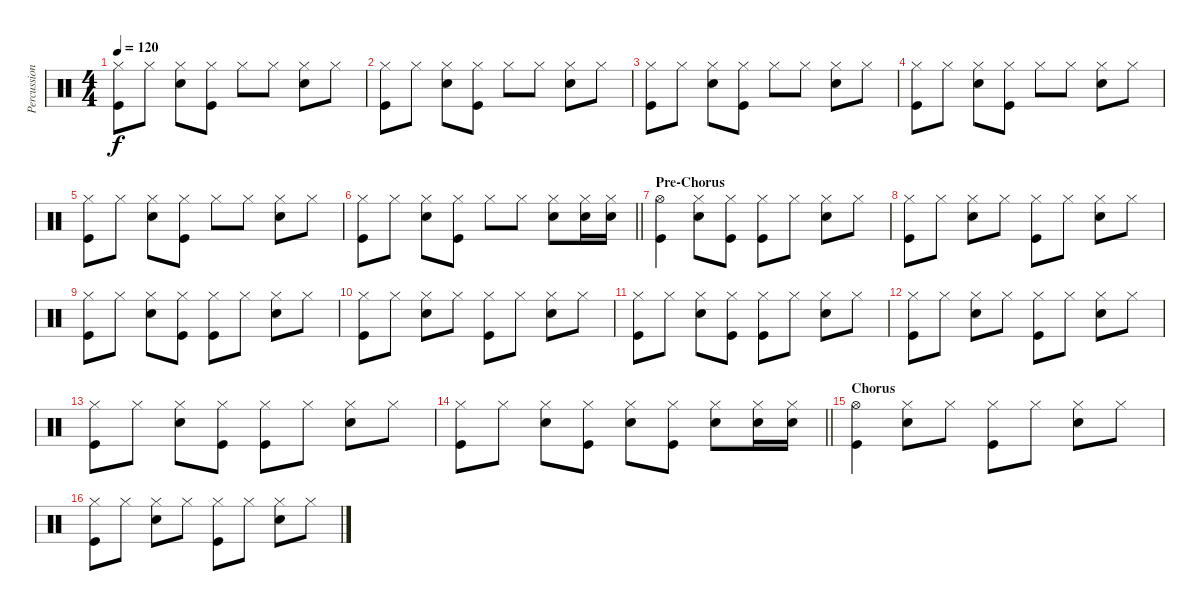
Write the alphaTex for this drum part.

\track ("Percussion" "Percussion") {instrument percussion}
\staff {score}
\articulation defaults
\ts (4 4)
\tempo 120
\clef neutral
\ks c
("Hi-Hat (closed)" "Kick (hit)").8{dy f} "Hi-Hat (closed)".8 ("Hi-Hat (closed)" "Snare (hit) 2").8 ("Hi-Hat (closed)" "Kick (hit)").8 "Hi-Hat (closed)".8 "Hi-Hat (closed)".8 ("Hi-Hat (closed)" "Snare (hit) 2").8 "Hi-Hat (closed)".8 |
("Hi-Hat (closed)" "Kick (hit)").8 "Hi-Hat (closed)".8 ("Hi-Hat (closed)" "Snare (hit) 2").8 ("Hi-Hat (closed)" "Kick (hit)").8 "Hi-Hat (closed)".8 "Hi-Hat (closed)".8 ("Hi-Hat (closed)" "Snare (hit) 2").8 "Hi-Hat (closed)".8 |
("Hi-Hat (closed)" "Kick (hit)").8 "Hi-Hat (closed)".8 ("Hi-Hat (closed)" "Snare (hit) 2").8 ("Hi-Hat (closed)" "Kick (hit)").8 "Hi-Hat (closed)".8 "Hi-Hat (closed)".8 ("Hi-Hat (closed)" "Snare (hit) 2").8 "Hi-Hat (closed)".8 |
("Hi-Hat (closed)" "Kick (hit)").8 "Hi-Hat (closed)".8 ("Hi-Hat (closed)" "Snare (hit) 2").8 ("Hi-Hat (closed)" "Kick (hit)").8 "Hi-Hat (closed)".8 "Hi-Hat (closed)".8 ("Hi-Hat (closed)" "Snare (hit) 2").8 "Hi-Hat (closed)".8 |
("Hi-Hat (closed)" "Kick (hit)").8 "Hi-Hat (closed)".8 ("Hi-Hat (closed)" "Snare (hit) 2").8 ("Hi-Hat (closed)" "Kick (hit)").8 "Hi-Hat (closed)".8 "Hi-Hat (closed)".8 ("Hi-Hat (closed)" "Snare (hit) 2").8 "Hi-Hat (closed)".8 |
\barLineRight lightlight
("Hi-Hat (closed)" "Kick (hit)").8 "Hi-Hat (closed)".8 ("Hi-Hat (closed)" "Snare (hit) 2").8 ("Hi-Hat (closed)" "Kick (hit)").8 "Hi-Hat (closed)".8 "Hi-Hat (closed)".8 ("Hi-Hat (closed)" "Snare (hit) 2").8 ("Hi-Hat (closed)" "Snare (hit) 2").16 ("Hi-Hat (closed)" "Snare (hit) 2").16 |
\section ("" "Pre-Chorus")
("Hi-Hat (open)" "Kick (hit)").4 ("Hi-Hat (closed)" "Snare (hit) 2").8 ("Hi-Hat (closed)" "Kick (hit)").8 ("Hi-Hat (closed)" "Kick (hit)").8 "Hi-Hat (closed)".8 ("Hi-Hat (closed)" "Snare (hit) 2").8 "Hi-Hat (closed)".8 |
("Hi-Hat (closed)" "Kick (hit)").8 "Hi-Hat (closed)".8 ("Hi-Hat (closed)" "Snare (hit) 2").8 "Hi-Hat (closed)".8 ("Hi-Hat (closed)" "Kick (hit)").8 "Hi-Hat (closed)".8 ("Hi-Hat (closed)" "Snare (hit) 2").8 "Hi-Hat (closed)".8 |
("Hi-Hat (closed)" "Kick (hit)").8 "Hi-Hat (closed)".8 ("Hi-Hat (closed)" "Snare (hit) 2").8 ("Hi-Hat (closed)" "Kick (hit)").8 ("Hi-Hat (closed)" "Kick (hit)").8 "Hi-Hat (closed)".8 ("Hi-Hat (closed)" "Snare (hit) 2").8 "Hi-Hat (closed)".8 |
("Hi-Hat (closed)" "Kick (hit)").8 "Hi-Hat (closed)".8 ("Hi-Hat (closed)" "Snare (hit) 2").8 "Hi-Hat (closed)".8 ("Hi-Hat (closed)" "Kick (hit)").8 "Hi-Hat (closed)".8 ("Hi-Hat (closed)" "Snare (hit) 2").8 "Hi-Hat (closed)".8 |
("Hi-Hat (closed)" "Kick (hit)").8 "Hi-Hat (closed)".8 ("Hi-Hat (closed)" "Snare (hit) 2").8 ("Hi-Hat (closed)" "Kick (hit)").8 ("Hi-Hat (closed)" "Kick (hit)").8 "Hi-Hat (closed)".8 ("Hi-Hat (closed)" "Snare (hit) 2").8 "Hi-Hat (closed)".8 |
("Hi-Hat (closed)" "Kick (hit)").8 "Hi-Hat (closed)".8 ("Hi-Hat (closed)" "Snare (hit) 2").8 "Hi-Hat (closed)".8 ("Hi-Hat (closed)" "Kick (hit)").8 "Hi-Hat (closed)".8 ("Hi-Hat (closed)" "Snare (hit) 2").8 "Hi-Hat (closed)".8 |
("Hi-Hat (closed)" "Kick (hit)").8 "Hi-Hat (closed)".8 ("Hi-Hat (closed)" "Snare (hit) 2").8 ("Hi-Hat (closed)" "Kick (hit)").8 ("Hi-Hat (closed)" "Kick (hit)").8 "Hi-Hat (closed)".8 ("Hi-Hat (closed)" "Snare (hit) 2").8 "Hi-Hat (closed)".8 |
\barLineRight lightlight
("Hi-Hat (closed)" "Kick (hit)").8 "Hi-Hat (closed)".8 ("Hi-Hat (closed)" "Snare (hit) 2").8 ("Hi-Hat (closed)" "Kick (hit)").8 ("Hi-Hat (closed)" "Snare (hit) 2").8 ("Hi-Hat (closed)" "Kick (hit)").8 ("Hi-Hat (closed)" "Snare (hit) 2").8 ("Hi-Hat (closed)" "Snare (hit) 2").16 ("Hi-Hat (closed)" "Snare (hit) 2").16 |
\section ("" "Chorus")
("Hi-Hat (open)" "Kick (hit)").4 ("Hi-Hat (closed)" "Snare (hit) 2").8 "Hi-Hat (closed)".8 ("Hi-Hat (closed)" "Kick (hit)").8 "Hi-Hat (closed)".8 ("Hi-Hat (closed)" "Snare (hit) 2").8 "Hi-Hat (closed)".8 |
("Hi-Hat (closed)" "Kick (hit)").8 "Hi-Hat (closed)".8 ("Hi-Hat (closed)" "Snare (hit) 2").8 "Hi-Hat (closed)".8 ("Hi-Hat (closed)" "Kick (hit)").8 "Hi-Hat (closed)".8 ("Hi-Hat (closed)" "Snare (hit) 2").8 "Hi-Hat (closed)".8
